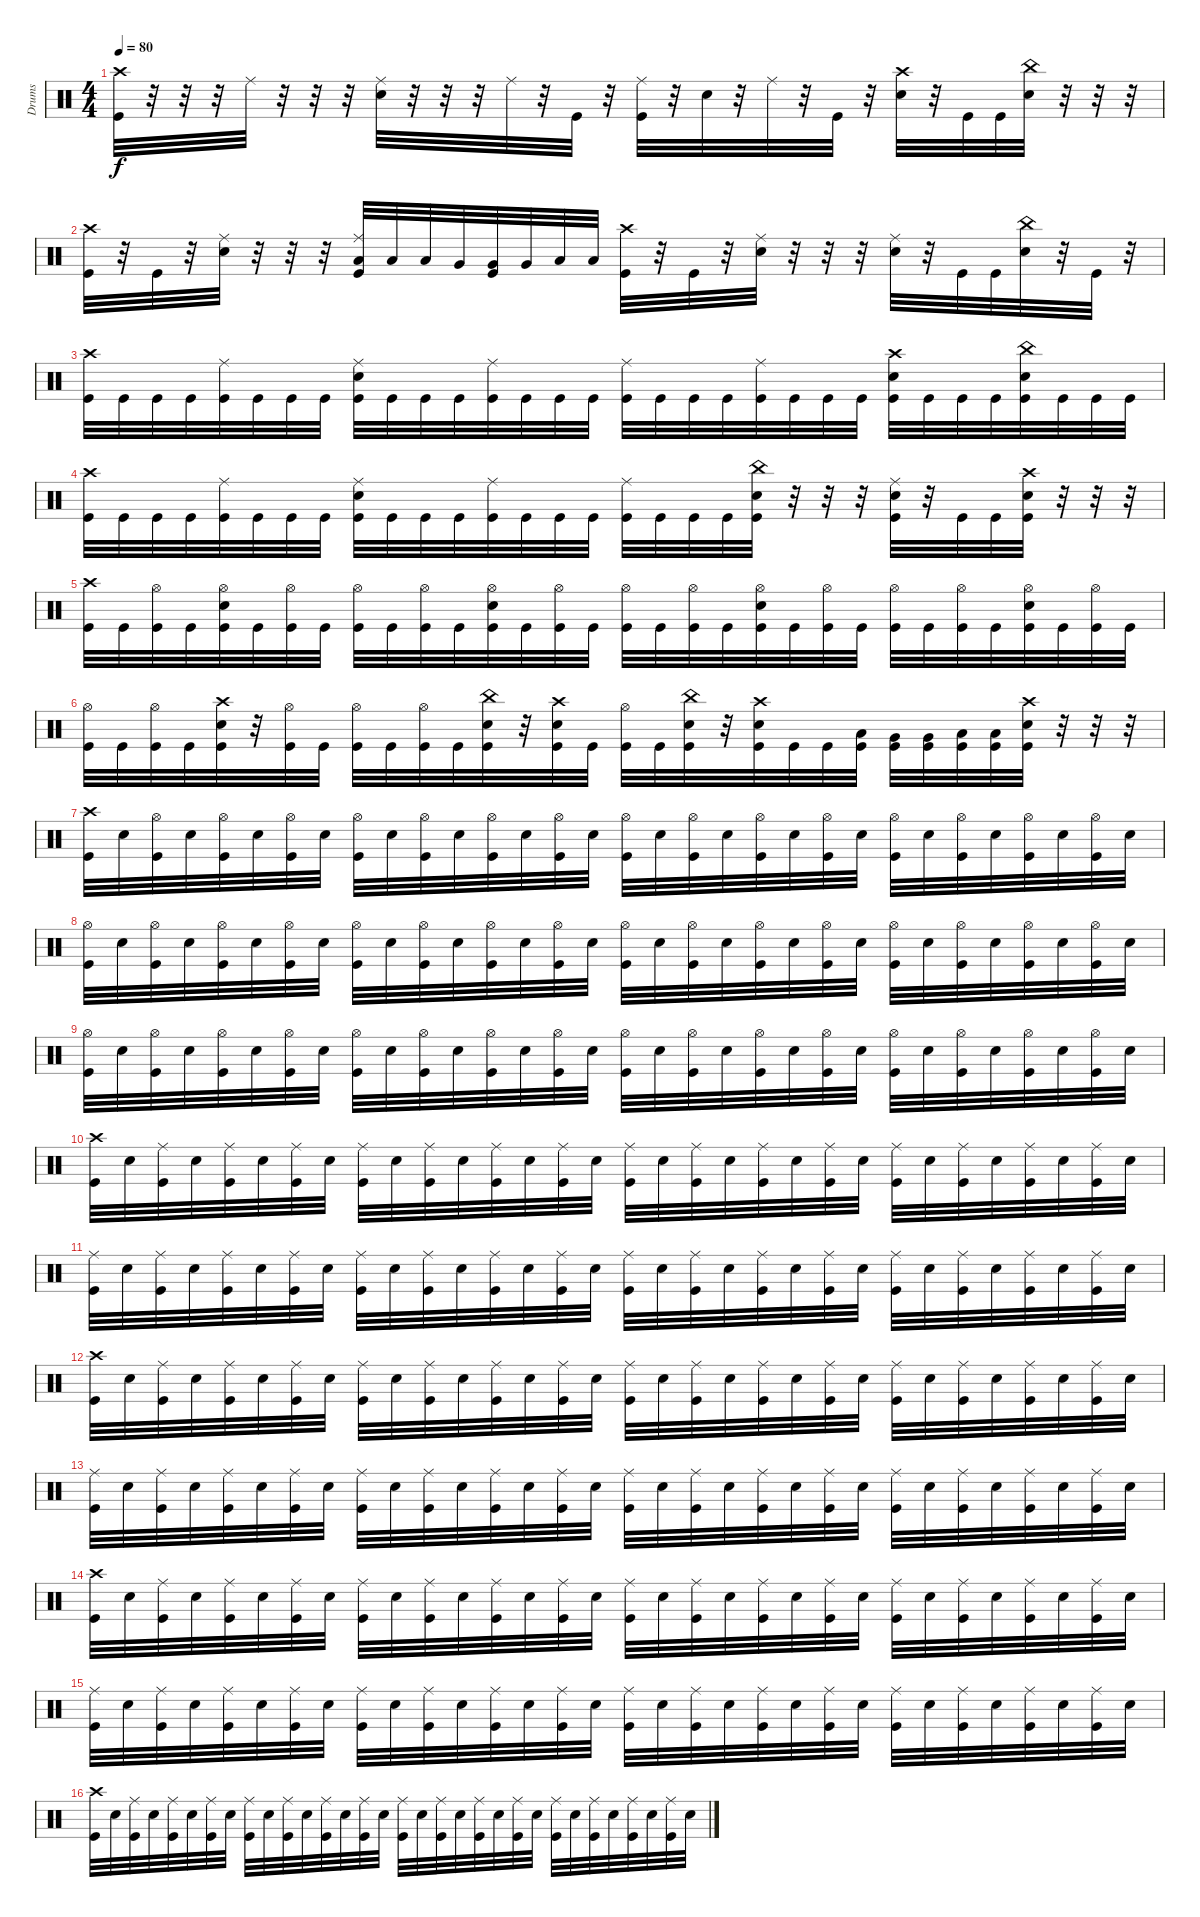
\track ("Drums" "Drums") {instrument percussion}
\staff {score}
\articulation defaults
\ts (4 4)
\tempo 80
\clef neutral
\ks c
("Crash high (hit)" "Kick (hit)").32{dy f} r.32 r.32 r.32 "Ride (middle)".32 r.32 r.32 r.32 ("Ride (middle)" "Snare (hit) 2").32 r.32 r.32 r.32 "Ride (middle)".32 r.32 "Kick (hit)".32 r.32 ("Ride (middle)" "Kick (hit)").32 r.32 "Snare (hit) 2".32 r.32 "Ride (middle)".32 r.32 "Kick (hit)".32 r.32 ("Crash high (hit)" "Snare (hit) 2").32 r.32 "Kick (hit)".32 "Kick (hit)".32 ("China (hit)" "Snare (hit) 2").32 r.32 r.32 r.32 |
("Crash high (hit)" "Kick (hit)").32 r.32 "Kick (hit)".32 r.32 ("Ride (middle)" "Snare (hit) 2").32 r.32 r.32 r.32 ("Ride (middle)" "Low Tom (hit)" "Kick (hit)").32 "Low Tom (hit)".32 "Low Tom (hit)".32 "Very Low Tom (hit)".32 ("Very Low Tom (hit)" "Kick (hit)").32 "Very Low Tom (hit)".32 "Low Floor Tom (hit)".32 "Low Floor Tom (hit)".32 ("Crash high (hit)" "Kick (hit)").32 r.32 "Kick (hit)".32 r.32 ("Ride (middle)" "Snare (hit) 2").32 r.32 r.32 r.32 ("Ride (middle)" "Snare (hit) 2").32 r.32 "Kick (hit)".32 "Kick (hit)".32 ("China (hit)" "Snare (hit) 2").32 r.32 "Kick (hit)".32 r.32 |
("Crash high (hit)" "Kick (hit)").32 "Kick (hit)".32 "Kick (hit)".32 "Kick (hit)".32 ("Ride (middle)" "Kick (hit)").32 "Kick (hit)".32 "Kick (hit)".32 "Kick (hit)".32 ("Ride (middle)" "Snare (hit) 2" "Kick (hit)").32 "Kick (hit)".32 "Kick (hit)".32 "Kick (hit)".32 ("Ride (middle)" "Kick (hit)").32 "Kick (hit)".32 "Kick (hit)".32 "Kick (hit)".32 ("Ride (middle)" "Kick (hit)").32 "Kick (hit)".32 "Kick (hit)".32 "Kick (hit)".32 ("Ride (middle)" "Kick (hit)").32 "Kick (hit)".32 "Kick (hit)".32 "Kick (hit)".32 ("Crash high (hit)" "Snare (hit) 2" "Kick (hit)").32 "Kick (hit)".32 "Kick (hit)".32 "Kick (hit)".32 ("China (hit)" "Snare (hit) 2" "Kick (hit)").32 "Kick (hit)".32 "Kick (hit)".32 "Kick (hit)".32 |
("Crash high (hit)" "Kick (hit)").32 "Kick (hit)".32 "Kick (hit)".32 "Kick (hit)".32 ("Ride (middle)" "Kick (hit)").32 "Kick (hit)".32 "Kick (hit)".32 "Kick (hit)".32 ("Ride (middle)" "Snare (hit) 2" "Kick (hit)").32 "Kick (hit)".32 "Kick (hit)".32 "Kick (hit)".32 ("Ride (middle)" "Kick (hit)").32 "Kick (hit)".32 "Kick (hit)".32 "Kick (hit)".32 ("Ride (middle)" "Kick (hit)").32 "Kick (hit)".32 "Kick (hit)".32 "Kick (hit)".32 ("China (hit)" "Snare (hit) 2" "Kick (hit)").32 r.32 r.32 r.32 ("Ride (middle)" "Snare (hit) 2" "Kick (hit)").32 r.32 "Kick (hit)".32 "Kick (hit)".32 ("Crash high (hit)" "Snare (hit) 2" "Kick (hit)").32 r.32 r.32 r.32 |
("Crash high (hit)" "Kick (hit)").32 "Kick (hit)".32 ("Hi-Hat (open)" "Kick (hit)").32 "Kick (hit)".32 ("Hi-Hat (open)" "Snare (hit) 2" "Kick (hit)").32 "Kick (hit)".32 ("Hi-Hat (open)" "Kick (hit)").32 "Kick (hit)".32 ("Hi-Hat (open)" "Kick (hit)").32 "Kick (hit)".32 ("Hi-Hat (open)" "Kick (hit)").32 "Kick (hit)".32 ("Hi-Hat (open)" "Snare (hit) 2" "Kick (hit)").32 "Kick (hit)".32 ("Hi-Hat (open)" "Kick (hit)").32 "Kick (hit)".32 ("Hi-Hat (open)" "Kick (hit)").32 "Kick (hit)".32 ("Hi-Hat (open)" "Kick (hit)").32 "Kick (hit)".32 ("Hi-Hat (open)" "Snare (hit) 2" "Kick (hit)").32 "Kick (hit)".32 ("Hi-Hat (open)" "Kick (hit)").32 "Kick (hit)".32 ("Hi-Hat (open)" "Kick (hit)").32 "Kick (hit)".32 ("Hi-Hat (open)" "Kick (hit)").32 "Kick (hit)".32 ("Hi-Hat (open)" "Snare (hit) 2" "Kick (hit)").32 "Kick (hit)".32 ("Hi-Hat (open)" "Kick (hit)").32 "Kick (hit)".32 |
("Hi-Hat (open)" "Kick (hit)").32 "Kick (hit)".32 ("Hi-Hat (open)" "Kick (hit)").32 "Kick (hit)".32 ("Crash high (hit)" "Snare (hit) 2" "Kick (hit)").32 r.32 ("Hi-Hat (open)" "Kick (hit)").32 "Kick (hit)".32 ("Hi-Hat (open)" "Kick (hit)").32 "Kick (hit)".32 ("Hi-Hat (open)" "Kick (hit)").32 "Kick (hit)".32 ("China (hit)" "Snare (hit) 2" "Kick (hit)").32 r.32 ("Crash high (hit)" "Snare (hit) 2" "Kick (hit)").32 "Kick (hit)".32 ("Hi-Hat (open)" "Kick (hit)").32 "Kick (hit)".32 ("China (hit)" "Snare (hit) 2" "Kick (hit)").32 r.32 ("Crash high (hit)" "Snare (hit) 2" "Kick (hit)").32 "Kick (hit)".32 "Kick (hit)".32 ("Low Tom (hit)" "Kick (hit)").32 ("Very Low Tom (hit)" "Kick (hit)").32 ("Very Low Tom (hit)" "Kick (hit)").32 ("Low Floor Tom (hit)" "Kick (hit)").32 ("Low Floor Tom (hit)" "Kick (hit)").32 ("Crash high (hit)" "Snare (hit) 2" "Kick (hit)").32 r.32 r.32 r.32 |
("Crash high (hit)" "Kick (hit)").32 "Snare (hit) 2".32 ("Hi-Hat (open)" "Kick (hit)").32 "Snare (hit) 2".32 ("Hi-Hat (open)" "Kick (hit)").32 "Snare (hit) 2".32 ("Hi-Hat (open)" "Kick (hit)").32 "Snare (hit) 2".32 ("Hi-Hat (open)" "Kick (hit)").32 "Snare (hit) 2".32 ("Hi-Hat (open)" "Kick (hit)").32 "Snare (hit) 2".32 ("Hi-Hat (open)" "Kick (hit)").32 "Snare (hit) 2".32 ("Hi-Hat (open)" "Kick (hit)").32 "Snare (hit) 2".32 ("Hi-Hat (open)" "Kick (hit)").32 "Snare (hit) 2".32 ("Hi-Hat (open)" "Kick (hit)").32 "Snare (hit) 2".32 ("Hi-Hat (open)" "Kick (hit)").32 "Snare (hit) 2".32 ("Hi-Hat (open)" "Kick (hit)").32 "Snare (hit) 2".32 ("Hi-Hat (open)" "Kick (hit)").32 "Snare (hit) 2".32 ("Hi-Hat (open)" "Kick (hit)").32 "Snare (hit) 2".32 ("Hi-Hat (open)" "Kick (hit)").32 "Snare (hit) 2".32 ("Hi-Hat (open)" "Kick (hit)").32 "Snare (hit) 2".32 |
("Hi-Hat (open)" "Kick (hit)").32 "Snare (hit) 2".32 ("Hi-Hat (open)" "Kick (hit)").32 "Snare (hit) 2".32 ("Hi-Hat (open)" "Kick (hit)").32 "Snare (hit) 2".32 ("Hi-Hat (open)" "Kick (hit)").32 "Snare (hit) 2".32 ("Hi-Hat (open)" "Kick (hit)").32 "Snare (hit) 2".32 ("Hi-Hat (open)" "Kick (hit)").32 "Snare (hit) 2".32 ("Hi-Hat (open)" "Kick (hit)").32 "Snare (hit) 2".32 ("Hi-Hat (open)" "Kick (hit)").32 "Snare (hit) 2".32 ("Hi-Hat (open)" "Kick (hit)").32 "Snare (hit) 2".32 ("Hi-Hat (open)" "Kick (hit)").32 "Snare (hit) 2".32 ("Hi-Hat (open)" "Kick (hit)").32 "Snare (hit) 2".32 ("Hi-Hat (open)" "Kick (hit)").32 "Snare (hit) 2".32 ("Hi-Hat (open)" "Kick (hit)").32 "Snare (hit) 2".32 ("Hi-Hat (open)" "Kick (hit)").32 "Snare (hit) 2".32 ("Hi-Hat (open)" "Kick (hit)").32 "Snare (hit) 2".32 ("Hi-Hat (open)" "Kick (hit)").32 "Snare (hit) 2".32 |
("Hi-Hat (open)" "Kick (hit)").32 "Snare (hit) 2".32 ("Hi-Hat (open)" "Kick (hit)").32 "Snare (hit) 2".32 ("Hi-Hat (open)" "Kick (hit)").32 "Snare (hit) 2".32 ("Hi-Hat (open)" "Kick (hit)").32 "Snare (hit) 2".32 ("Hi-Hat (open)" "Kick (hit)").32 "Snare (hit) 2".32 ("Hi-Hat (open)" "Kick (hit)").32 "Snare (hit) 2".32 ("Hi-Hat (open)" "Kick (hit)").32 "Snare (hit) 2".32 ("Hi-Hat (open)" "Kick (hit)").32 "Snare (hit) 2".32 ("Hi-Hat (open)" "Kick (hit)").32 "Snare (hit) 2".32 ("Hi-Hat (open)" "Kick (hit)").32 "Snare (hit) 2".32 ("Hi-Hat (open)" "Kick (hit)").32 "Snare (hit) 2".32 ("Hi-Hat (open)" "Kick (hit)").32 "Snare (hit) 2".32 ("Hi-Hat (open)" "Kick (hit)").32 "Snare (hit) 2".32 ("Hi-Hat (open)" "Kick (hit)").32 "Snare (hit) 2".32 ("Hi-Hat (open)" "Kick (hit)").32 "Snare (hit) 2".32 ("Hi-Hat (open)" "Kick (hit)").32 "Snare (hit) 2".32 |
("Crash high (hit)" "Kick (hit)").32 "Snare (hit) 2".32 ("Ride (middle)" "Kick (hit)").32 "Snare (hit) 2".32 ("Ride (middle)" "Kick (hit)").32 "Snare (hit) 2".32 ("Ride (middle)" "Kick (hit)").32 "Snare (hit) 2".32 ("Ride (middle)" "Kick (hit)").32 "Snare (hit) 2".32 ("Ride (middle)" "Kick (hit)").32 "Snare (hit) 2".32 ("Ride (middle)" "Kick (hit)").32 "Snare (hit) 2".32 ("Ride (middle)" "Kick (hit)").32 "Snare (hit) 2".32 ("Ride (middle)" "Kick (hit)").32 "Snare (hit) 2".32 ("Ride (middle)" "Kick (hit)").32 "Snare (hit) 2".32 ("Ride (middle)" "Kick (hit)").32 "Snare (hit) 2".32 ("Ride (middle)" "Kick (hit)").32 "Snare (hit) 2".32 ("Ride (middle)" "Kick (hit)").32 "Snare (hit) 2".32 ("Ride (middle)" "Kick (hit)").32 "Snare (hit) 2".32 ("Ride (middle)" "Kick (hit)").32 "Snare (hit) 2".32 ("Ride (middle)" "Kick (hit)").32 "Snare (hit) 2".32 |
("Ride (middle)" "Kick (hit)").32 "Snare (hit) 2".32 ("Ride (middle)" "Kick (hit)").32 "Snare (hit) 2".32 ("Ride (middle)" "Kick (hit)").32 "Snare (hit) 2".32 ("Ride (middle)" "Kick (hit)").32 "Snare (hit) 2".32 ("Ride (middle)" "Kick (hit)").32 "Snare (hit) 2".32 ("Ride (middle)" "Kick (hit)").32 "Snare (hit) 2".32 ("Ride (middle)" "Kick (hit)").32 "Snare (hit) 2".32 ("Ride (middle)" "Kick (hit)").32 "Snare (hit) 2".32 ("Ride (middle)" "Kick (hit)").32 "Snare (hit) 2".32 ("Ride (middle)" "Kick (hit)").32 "Snare (hit) 2".32 ("Ride (middle)" "Kick (hit)").32 "Snare (hit) 2".32 ("Ride (middle)" "Kick (hit)").32 "Snare (hit) 2".32 ("Ride (middle)" "Kick (hit)").32 "Snare (hit) 2".32 ("Ride (middle)" "Kick (hit)").32 "Snare (hit) 2".32 ("Ride (middle)" "Kick (hit)").32 "Snare (hit) 2".32 ("Ride (middle)" "Kick (hit)").32 "Snare (hit) 2".32 |
("Crash high (hit)" "Kick (hit)").32 "Snare (hit) 2".32 ("Ride (middle)" "Kick (hit)").32 "Snare (hit) 2".32 ("Ride (middle)" "Kick (hit)").32 "Snare (hit) 2".32 ("Ride (middle)" "Kick (hit)").32 "Snare (hit) 2".32 ("Ride (middle)" "Kick (hit)").32 "Snare (hit) 2".32 ("Ride (middle)" "Kick (hit)").32 "Snare (hit) 2".32 ("Ride (middle)" "Kick (hit)").32 "Snare (hit) 2".32 ("Ride (middle)" "Kick (hit)").32 "Snare (hit) 2".32 ("Ride (middle)" "Kick (hit)").32 "Snare (hit) 2".32 ("Ride (middle)" "Kick (hit)").32 "Snare (hit) 2".32 ("Ride (middle)" "Kick (hit)").32 "Snare (hit) 2".32 ("Ride (middle)" "Kick (hit)").32 "Snare (hit) 2".32 ("Ride (middle)" "Kick (hit)").32 "Snare (hit) 2".32 ("Ride (middle)" "Kick (hit)").32 "Snare (hit) 2".32 ("Ride (middle)" "Kick (hit)").32 "Snare (hit) 2".32 ("Ride (middle)" "Kick (hit)").32 "Snare (hit) 2".32 |
("Ride (middle)" "Kick (hit)").32 "Snare (hit) 2".32 ("Ride (middle)" "Kick (hit)").32 "Snare (hit) 2".32 ("Ride (middle)" "Kick (hit)").32 "Snare (hit) 2".32 ("Ride (middle)" "Kick (hit)").32 "Snare (hit) 2".32 ("Ride (middle)" "Kick (hit)").32 "Snare (hit) 2".32 ("Ride (middle)" "Kick (hit)").32 "Snare (hit) 2".32 ("Ride (middle)" "Kick (hit)").32 "Snare (hit) 2".32 ("Ride (middle)" "Kick (hit)").32 "Snare (hit) 2".32 ("Ride (middle)" "Kick (hit)").32 "Snare (hit) 2".32 ("Ride (middle)" "Kick (hit)").32 "Snare (hit) 2".32 ("Ride (middle)" "Kick (hit)").32 "Snare (hit) 2".32 ("Ride (middle)" "Kick (hit)").32 "Snare (hit) 2".32 ("Ride (middle)" "Kick (hit)").32 "Snare (hit) 2".32 ("Ride (middle)" "Kick (hit)").32 "Snare (hit) 2".32 ("Ride (middle)" "Kick (hit)").32 "Snare (hit) 2".32 ("Ride (middle)" "Kick (hit)").32 "Snare (hit) 2".32 |
("Crash high (hit)" "Kick (hit)").32 "Snare (hit) 2".32 ("Ride (middle)" "Kick (hit)").32 "Snare (hit) 2".32 ("Ride (middle)" "Kick (hit)").32 "Snare (hit) 2".32 ("Ride (middle)" "Kick (hit)").32 "Snare (hit) 2".32 ("Ride (middle)" "Kick (hit)").32 "Snare (hit) 2".32 ("Ride (middle)" "Kick (hit)").32 "Snare (hit) 2".32 ("Ride (middle)" "Kick (hit)").32 "Snare (hit) 2".32 ("Ride (middle)" "Kick (hit)").32 "Snare (hit) 2".32 ("Ride (middle)" "Kick (hit)").32 "Snare (hit) 2".32 ("Ride (middle)" "Kick (hit)").32 "Snare (hit) 2".32 ("Ride (middle)" "Kick (hit)").32 "Snare (hit) 2".32 ("Ride (middle)" "Kick (hit)").32 "Snare (hit) 2".32 ("Ride (middle)" "Kick (hit)").32 "Snare (hit) 2".32 ("Ride (middle)" "Kick (hit)").32 "Snare (hit) 2".32 ("Ride (middle)" "Kick (hit)").32 "Snare (hit) 2".32 ("Ride (middle)" "Kick (hit)").32 "Snare (hit) 2".32 |
("Ride (middle)" "Kick (hit)").32 "Snare (hit) 2".32 ("Ride (middle)" "Kick (hit)").32 "Snare (hit) 2".32 ("Ride (middle)" "Kick (hit)").32 "Snare (hit) 2".32 ("Ride (middle)" "Kick (hit)").32 "Snare (hit) 2".32 ("Ride (middle)" "Kick (hit)").32 "Snare (hit) 2".32 ("Ride (middle)" "Kick (hit)").32 "Snare (hit) 2".32 ("Ride (middle)" "Kick (hit)").32 "Snare (hit) 2".32 ("Ride (middle)" "Kick (hit)").32 "Snare (hit) 2".32 ("Ride (middle)" "Kick (hit)").32 "Snare (hit) 2".32 ("Ride (middle)" "Kick (hit)").32 "Snare (hit) 2".32 ("Ride (middle)" "Kick (hit)").32 "Snare (hit) 2".32 ("Ride (middle)" "Kick (hit)").32 "Snare (hit) 2".32 ("Ride (middle)" "Kick (hit)").32 "Snare (hit) 2".32 ("Ride (middle)" "Kick (hit)").32 "Snare (hit) 2".32 ("Ride (middle)" "Kick (hit)").32 "Snare (hit) 2".32 ("Ride (middle)" "Kick (hit)").32 "Snare (hit) 2".32 |
("Crash high (hit)" "Kick (hit)").32 "Snare (hit) 2".32 ("Ride (middle)" "Kick (hit)").32 "Snare (hit) 2".32 ("Ride (middle)" "Kick (hit)").32 "Snare (hit) 2".32 ("Ride (middle)" "Kick (hit)").32 "Snare (hit) 2".32 ("Ride (middle)" "Kick (hit)").32 "Snare (hit) 2".32 ("Ride (middle)" "Kick (hit)").32 "Snare (hit) 2".32 ("Ride (middle)" "Kick (hit)").32 "Snare (hit) 2".32 ("Ride (middle)" "Kick (hit)").32 "Snare (hit) 2".32 ("Ride (middle)" "Kick (hit)").32 "Snare (hit) 2".32 ("Ride (middle)" "Kick (hit)").32 "Snare (hit) 2".32 ("Ride (middle)" "Kick (hit)").32 "Snare (hit) 2".32 ("Ride (middle)" "Kick (hit)").32 "Snare (hit) 2".32 ("Ride (middle)" "Kick (hit)").32 "Snare (hit) 2".32 ("Ride (middle)" "Kick (hit)").32 "Snare (hit) 2".32 ("Ride (middle)" "Kick (hit)").32 "Snare (hit) 2".32 ("Ride (middle)" "Kick (hit)").32 "Snare (hit) 2".32
